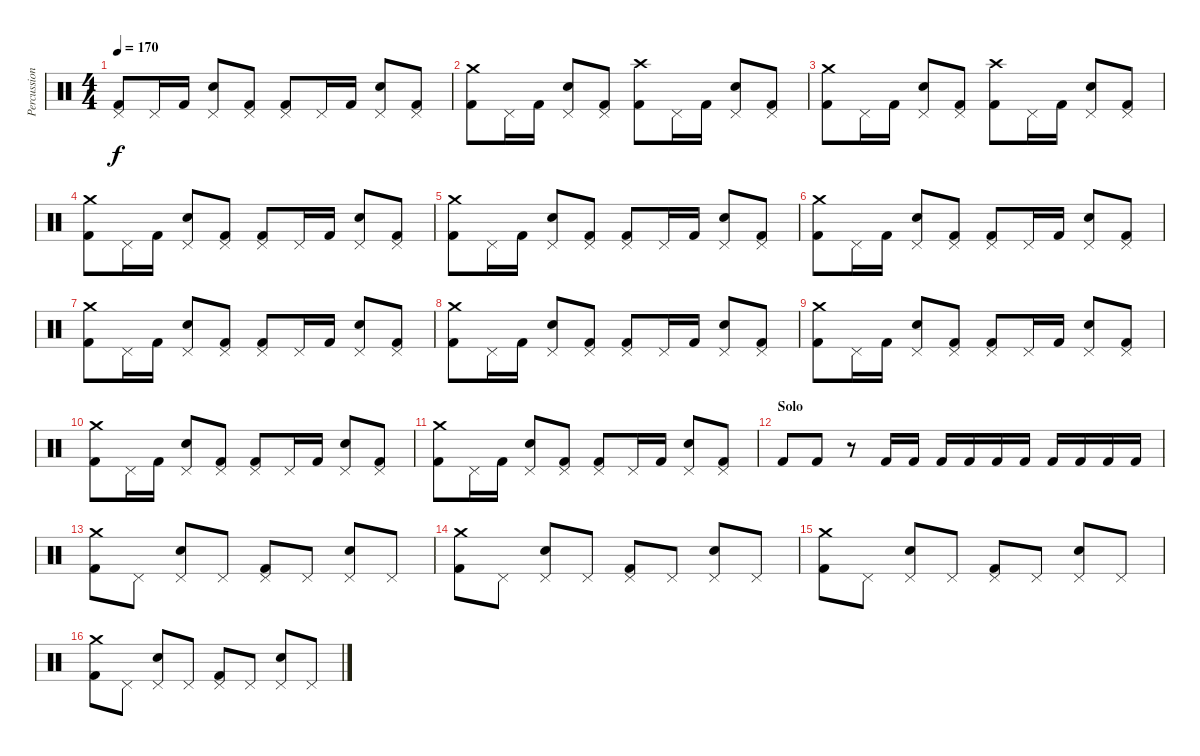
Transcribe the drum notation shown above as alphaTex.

\track ("Percussions" "Percussion") {instrument percussion}
\staff {score}
\articulation defaults
\ts (4 4)
\tempo 170
\clef neutral
\ks c
("Pedal Hi-Hat (hit)" "Kick (hit) 2").8{dy f} "Pedal Hi-Hat (hit)".16 "Kick (hit) 2".16 ("Pedal Hi-Hat (hit)" "Snare (hit) 2").8 ("Pedal Hi-Hat (hit)" "Kick (hit) 2").8 ("Pedal Hi-Hat (hit)" "Kick (hit) 2").8 "Pedal Hi-Hat (hit)".16 "Kick (hit) 2".16 ("Pedal Hi-Hat (hit)" "Snare (hit) 2").8 ("Pedal Hi-Hat (hit)" "Kick (hit) 2").8 |
("Crash medium (hit)" "Kick (hit) 2").8 "Pedal Hi-Hat (hit)".16 "Kick (hit) 2".16 ("Pedal Hi-Hat (hit)" "Snare (hit) 2").8 ("Pedal Hi-Hat (hit)" "Kick (hit) 2").8 ("Crash high (hit)" "Kick (hit) 2").8 "Pedal Hi-Hat (hit)".16 "Kick (hit) 2".16 ("Pedal Hi-Hat (hit)" "Snare (hit) 2").8 ("Pedal Hi-Hat (hit)" "Kick (hit) 2").8 |
("Crash medium (hit)" "Kick (hit) 2").8 "Pedal Hi-Hat (hit)".16 "Kick (hit) 2".16 ("Pedal Hi-Hat (hit)" "Snare (hit) 2").8 ("Pedal Hi-Hat (hit)" "Kick (hit) 2").8 ("Crash high (hit)" "Kick (hit) 2").8 "Pedal Hi-Hat (hit)".16 "Kick (hit) 2".16 ("Pedal Hi-Hat (hit)" "Snare (hit) 2").8 ("Pedal Hi-Hat (hit)" "Kick (hit) 2").8 |
("Crash medium (hit)" "Kick (hit) 2").8 "Pedal Hi-Hat (hit)".16 "Kick (hit) 2".16 ("Pedal Hi-Hat (hit)" "Snare (hit) 2").8 ("Pedal Hi-Hat (hit)" "Kick (hit) 2").8 ("Pedal Hi-Hat (hit)" "Kick (hit) 2").8 "Pedal Hi-Hat (hit)".16 "Kick (hit) 2".16 ("Pedal Hi-Hat (hit)" "Snare (hit) 2").8 ("Pedal Hi-Hat (hit)" "Kick (hit) 2").8 |
("Crash medium (hit)" "Kick (hit) 2").8 "Pedal Hi-Hat (hit)".16 "Kick (hit) 2".16 ("Pedal Hi-Hat (hit)" "Snare (hit) 2").8 ("Pedal Hi-Hat (hit)" "Kick (hit) 2").8 ("Pedal Hi-Hat (hit)" "Kick (hit) 2").8 "Pedal Hi-Hat (hit)".16 "Kick (hit) 2".16 ("Pedal Hi-Hat (hit)" "Snare (hit) 2").8 ("Pedal Hi-Hat (hit)" "Kick (hit) 2").8 |
("Crash medium (hit)" "Kick (hit) 2").8 "Pedal Hi-Hat (hit)".16 "Kick (hit) 2".16 ("Pedal Hi-Hat (hit)" "Snare (hit) 2").8 ("Pedal Hi-Hat (hit)" "Kick (hit) 2").8 ("Pedal Hi-Hat (hit)" "Kick (hit) 2").8 "Pedal Hi-Hat (hit)".16 "Kick (hit) 2".16 ("Pedal Hi-Hat (hit)" "Snare (hit) 2").8 ("Pedal Hi-Hat (hit)" "Kick (hit) 2").8 |
("Crash medium (hit)" "Kick (hit) 2").8 "Pedal Hi-Hat (hit)".16 "Kick (hit) 2".16 ("Pedal Hi-Hat (hit)" "Snare (hit) 2").8 ("Pedal Hi-Hat (hit)" "Kick (hit) 2").8 ("Pedal Hi-Hat (hit)" "Kick (hit) 2").8 "Pedal Hi-Hat (hit)".16 "Kick (hit) 2".16 ("Pedal Hi-Hat (hit)" "Snare (hit) 2").8 ("Pedal Hi-Hat (hit)" "Kick (hit) 2").8 |
("Crash medium (hit)" "Kick (hit) 2").8 "Pedal Hi-Hat (hit)".16 "Kick (hit) 2".16 ("Pedal Hi-Hat (hit)" "Snare (hit) 2").8 ("Pedal Hi-Hat (hit)" "Kick (hit) 2").8 ("Pedal Hi-Hat (hit)" "Kick (hit) 2").8 "Pedal Hi-Hat (hit)".16 "Kick (hit) 2".16 ("Pedal Hi-Hat (hit)" "Snare (hit) 2").8 ("Pedal Hi-Hat (hit)" "Kick (hit) 2").8 |
("Crash medium (hit)" "Kick (hit) 2").8 "Pedal Hi-Hat (hit)".16 "Kick (hit) 2".16 ("Pedal Hi-Hat (hit)" "Snare (hit) 2").8 ("Pedal Hi-Hat (hit)" "Kick (hit) 2").8 ("Pedal Hi-Hat (hit)" "Kick (hit) 2").8 "Pedal Hi-Hat (hit)".16 "Kick (hit) 2".16 ("Pedal Hi-Hat (hit)" "Snare (hit) 2").8 ("Pedal Hi-Hat (hit)" "Kick (hit) 2").8 |
("Crash medium (hit)" "Kick (hit) 2").8 "Pedal Hi-Hat (hit)".16 "Kick (hit) 2".16 ("Pedal Hi-Hat (hit)" "Snare (hit) 2").8 ("Pedal Hi-Hat (hit)" "Kick (hit) 2").8 ("Pedal Hi-Hat (hit)" "Kick (hit) 2").8 "Pedal Hi-Hat (hit)".16 "Kick (hit) 2".16 ("Pedal Hi-Hat (hit)" "Snare (hit) 2").8 ("Pedal Hi-Hat (hit)" "Kick (hit) 2").8 |
("Crash medium (hit)" "Kick (hit) 2").8 "Pedal Hi-Hat (hit)".16 "Kick (hit) 2".16 ("Pedal Hi-Hat (hit)" "Snare (hit) 2").8 ("Pedal Hi-Hat (hit)" "Kick (hit) 2").8 ("Pedal Hi-Hat (hit)" "Kick (hit) 2").8 "Pedal Hi-Hat (hit)".16 "Kick (hit) 2".16 ("Pedal Hi-Hat (hit)" "Snare (hit) 2").8 ("Pedal Hi-Hat (hit)" "Kick (hit) 2").8 |
\section ("" "Solo")
"Kick (hit) 2".8 "Kick (hit) 2".8 r.8 "Kick (hit) 2".16 "Kick (hit) 2".16 "Kick (hit) 2".16 "Kick (hit) 2".16 "Kick (hit) 2".16 "Kick (hit) 2".16 "Kick (hit) 2".16 "Kick (hit) 2".16 "Kick (hit) 2".16 "Kick (hit) 2".16 |
("Crash medium (hit)" "Kick (hit) 2").8 "Pedal Hi-Hat (hit)".8 ("Pedal Hi-Hat (hit)" "Snare (hit) 2").8 "Pedal Hi-Hat (hit)".8 ("Pedal Hi-Hat (hit)" "Kick (hit) 2").8 "Pedal Hi-Hat (hit)".8 ("Pedal Hi-Hat (hit)" "Snare (hit) 2").8 "Pedal Hi-Hat (hit)".8 |
("Crash medium (hit)" "Kick (hit) 2").8 "Pedal Hi-Hat (hit)".8 ("Pedal Hi-Hat (hit)" "Snare (hit) 2").8 "Pedal Hi-Hat (hit)".8 ("Pedal Hi-Hat (hit)" "Kick (hit) 2").8 "Pedal Hi-Hat (hit)".8 ("Pedal Hi-Hat (hit)" "Snare (hit) 2").8 "Pedal Hi-Hat (hit)".8 |
("Crash medium (hit)" "Kick (hit) 2").8 "Pedal Hi-Hat (hit)".8 ("Pedal Hi-Hat (hit)" "Snare (hit) 2").8 "Pedal Hi-Hat (hit)".8 ("Pedal Hi-Hat (hit)" "Kick (hit) 2").8 "Pedal Hi-Hat (hit)".8 ("Pedal Hi-Hat (hit)" "Snare (hit) 2").8 "Pedal Hi-Hat (hit)".8 |
("Crash medium (hit)" "Kick (hit) 2").8 "Pedal Hi-Hat (hit)".8 ("Pedal Hi-Hat (hit)" "Snare (hit) 2").8 "Pedal Hi-Hat (hit)".8 ("Pedal Hi-Hat (hit)" "Kick (hit) 2").8 "Pedal Hi-Hat (hit)".8 ("Pedal Hi-Hat (hit)" "Snare (hit) 2").8 "Pedal Hi-Hat (hit)".8
